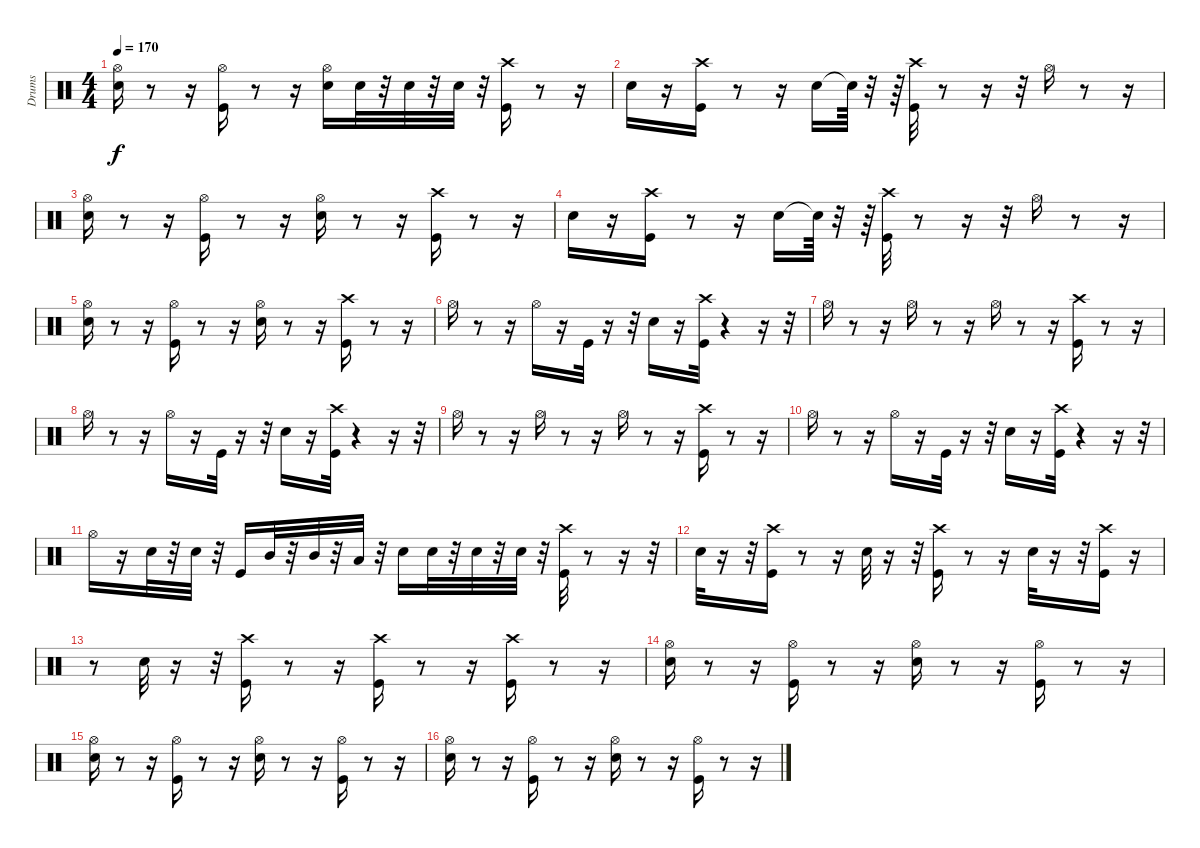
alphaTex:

\track ("Drums" "Drums") {instrument percussion}
\staff {score}
\articulation defaults
\ts (4 4)
\tempo 170
\clef neutral
\ks c
("Snare (hit) 2" "Hi-Hat (open)").16{dy f} r.8 r.16 ("Kick (hit)" "Hi-Hat (open)").16 r.8 r.16 ("Snare (hit) 2" "Hi-Hat (open)").16 "Snare (hit) 2".32 r.32 "Electric Snare (hit)".32 r.32 "Electric Snare (hit)".32 r.32 ("Crash high (hit)" "Kick (hit)").16 r.8 r.16 |
"Snare (hit) 2".16 r.16 ("Kick (hit)" "Crash high (hit)").16 r.8 r.16 "Snare (hit) 2".16 "Snare (hit)"{t}.64 r.32 r.64 ("Kick (hit)" "Crash high (hit)").32 r.8 r.16 r.32 "Hi-Hat (open)".16 r.8 r.16 |
("Hi-Hat (open)" "Snare (hit) 2").16 r.8 r.16 ("Hi-Hat (open)" "Kick (hit)").16 r.8 r.16 ("Hi-Hat (open)" "Snare (hit) 2").16 r.8 r.16 ("Kick (hit)" "Crash high (hit)").16 r.8 r.16 |
"Snare (hit) 2".16 r.16 ("Kick (hit)" "Crash high (hit)").16 r.8 r.16 "Snare (hit) 2".16 "Snare (hit)"{t}.64 r.32 r.64 ("Kick (hit)" "Crash high (hit)").32 r.8 r.16 r.32 "Hi-Hat (open)".16 r.8 r.16 |
("Hi-Hat (open)" "Snare (hit) 2").16 r.8 r.16 ("Hi-Hat (open)" "Kick (hit)").16 r.8 r.16 ("Hi-Hat (open)" "Snare (hit) 2").16 r.8 r.16 ("Kick (hit)" "Crash high (hit)").16 r.8 r.16 |
"Hi-Hat (open)".16 r.8 r.16 "Hi-Hat (open)".16 r.16 "Kick (hit)".32 r.16 r.32 "Snare (hit) 2".16 r.16 ("Kick (hit)" "Crash high (hit)").32 r.4 r.16 r.32 |
"Hi-Hat (open)".16 r.8 r.16 "Hi-Hat (open)".16 r.8 r.16 "Hi-Hat (open)".16 r.8 r.16 ("Kick (hit)" "Crash high (hit)").16 r.8 r.16 |
"Hi-Hat (open)".16 r.8 r.16 "Hi-Hat (open)".16 r.16 "Kick (hit)".32 r.16 r.32 "Snare (hit) 2".16 r.16 ("Kick (hit)" "Crash high (hit)").32 r.4 r.16 r.32 |
"Hi-Hat (open)".16 r.8 r.16 "Hi-Hat (open)".16 r.8 r.16 "Hi-Hat (open)".16 r.8 r.16 ("Kick (hit)" "Crash high (hit)").16 r.8 r.16 |
"Hi-Hat (open)".16 r.8 r.16 "Hi-Hat (open)".16 r.16 "Kick (hit)".32 r.16 r.32 "Snare (hit) 2".16 r.16 ("Kick (hit)" "Crash high (hit)").32 r.4 r.16 r.32 |
"Hi-Hat (open)".16 r.16 "Snare (hit) 2".32 r.32 "Snare (hit) 2".32 r.32 "Kick (hit)".16 "Mid Tom (hit)".32 r.32 "Mid Tom (hit)".32 r.32 "Low Tom (hit)".32 r.32 "Snare (hit) 2".16 "Snare (hit) 2".32 r.32 "Snare (hit) 2".32 r.32 "Snare (hit) 2".32 r.32 ("Kick (hit)" "Crash high (hit)").32 r.8 r.16 r.32 |
"Snare (hit) 2".32 r.16 r.32 ("Kick (hit)" "Crash high (hit)").16 r.8 r.16 "Snare (hit) 2".32 r.16 r.32 ("Kick (hit)" "Crash high (hit)").16 r.8 r.16 "Snare (hit) 2".32 r.16 r.32 ("Kick (hit)" "Crash high (hit)").16 r.16 |
r.8 "Snare (hit) 2".32 r.16 r.32 ("Kick (hit)" "Crash high (hit)").16 r.8 r.16 ("Kick (hit)" "Crash high (hit)").16 r.8 r.16 ("Kick (hit)" "Crash high (hit)").16 r.8 r.16 |
("Hi-Hat (open)" "Snare (hit) 2").16 r.8 r.16 ("Kick (hit)" "Hi-Hat (open)").16 r.8 r.16 ("Snare (hit) 2" "Hi-Hat (open)").16 r.8 r.16 ("Kick (hit)" "Hi-Hat (open)").16 r.8 r.16 |
("Snare (hit) 2" "Hi-Hat (open)").16 r.8 r.16 ("Kick (hit)" "Hi-Hat (open)").16 r.8 r.16 ("Snare (hit) 2" "Hi-Hat (open)").16 r.8 r.16 ("Kick (hit)" "Hi-Hat (open)").16 r.8 r.16 |
("Hi-Hat (open)" "Snare (hit) 2").16 r.8 r.16 ("Kick (hit)" "Hi-Hat (open)").16 r.8 r.16 ("Snare (hit) 2" "Hi-Hat (open)").16 r.8 r.16 ("Kick (hit)" "Hi-Hat (open)").16 r.8 r.16
